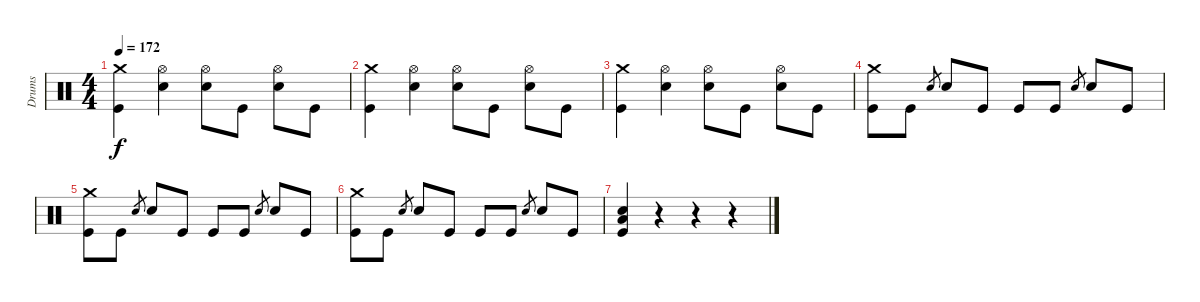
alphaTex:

\track ("Drums" "Drums") {instrument percussion}
\staff {score}
\articulation defaults
\ts (4 4)
\tempo 172
\clef neutral
\ks c
("Crash medium (hit)" "Kick (hit)").4{dy f} ("Hi-Hat (open)" "Snare (hit) 2").4 ("Hi-Hat (open)" "Snare (hit) 2").8 "Kick (hit)".8 ("Hi-Hat (open)" "Snare (hit) 2").8 "Kick (hit)".8 |
("Crash medium (hit)" "Kick (hit)").4 ("Hi-Hat (open)" "Snare (hit) 2").4 ("Hi-Hat (open)" "Snare (hit) 2").8 "Kick (hit)".8 ("Hi-Hat (open)" "Snare (hit) 2").8 "Kick (hit)".8 |
("Crash medium (hit)" "Kick (hit)").4 ("Hi-Hat (open)" "Snare (hit) 2").4 ("Hi-Hat (open)" "Snare (hit) 2").8 "Kick (hit)".8 ("Hi-Hat (open)" "Snare (hit) 2").8 "Kick (hit)".8 |
("Crash medium (hit)" "Kick (hit)").8 "Kick (hit)".8 "Snare (hit) 2".8{gr} "Snare (hit) 2".8 "Kick (hit)".8 "Kick (hit)".8 "Kick (hit)".8 "Snare (hit) 2".8{gr} "Snare (hit) 2".8 "Kick (hit)".8 |
("Crash medium (hit)" "Kick (hit)").8 "Kick (hit)".8 "Snare (hit) 2".8{gr} "Snare (hit) 2".8 "Kick (hit)".8 "Kick (hit)".8 "Kick (hit)".8 "Snare (hit) 2".8{gr} "Snare (hit) 2".8 "Kick (hit)".8 |
("Crash medium (hit)" "Kick (hit)").8 "Kick (hit)".8 "Snare (hit) 2".8{gr} "Snare (hit) 2".8 "Kick (hit)".8 "Kick (hit)".8 "Kick (hit)".8 "Snare (hit) 2".8{gr} "Snare (hit) 2".8 "Kick (hit)".8 |
("Snare (hit) 2" "Low Floor Tom (hit)" "Kick (hit)").4 r.4 r.4 r.4
